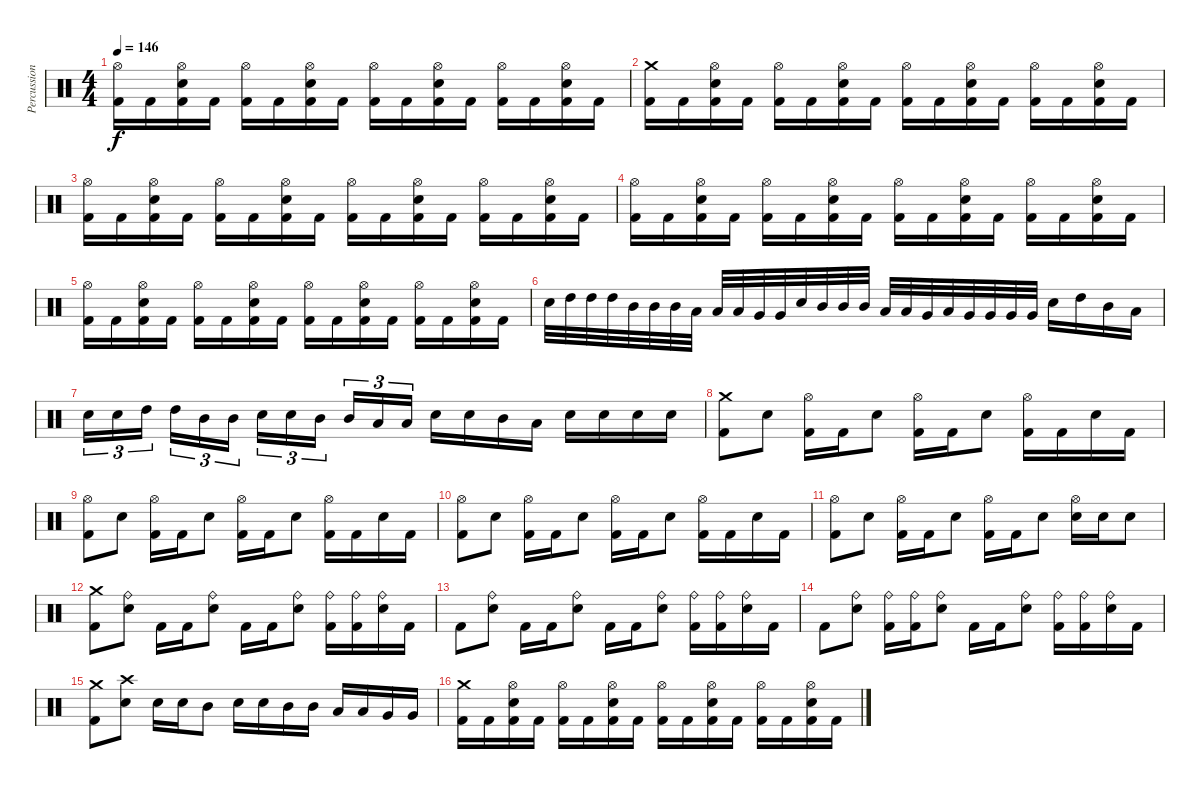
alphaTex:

\track ("Percussion" "Percussion") {instrument percussion}
\staff {score}
\articulation defaults
\ts (4 4)
\tempo 146
\clef neutral
\ks c
("Kick (hit) 2" "Hi-Hat (open)").16{dy f} "Kick (hit) 2".16 ("Kick (hit) 2" "Electric Snare (hit)" "Hi-Hat (open)").16 "Kick (hit) 2".16 ("Kick (hit) 2" "Hi-Hat (open)").16 "Kick (hit) 2".16 ("Kick (hit) 2" "Electric Snare (hit)" "Hi-Hat (open)").16 "Kick (hit) 2".16 ("Kick (hit) 2" "Hi-Hat (open)").16 "Kick (hit) 2".16 ("Kick (hit) 2" "Electric Snare (hit)" "Hi-Hat (open)").16 "Kick (hit) 2".16 ("Kick (hit) 2" "Hi-Hat (open)").16 "Kick (hit) 2".16 ("Kick (hit) 2" "Electric Snare (hit)" "Hi-Hat (open)").16 "Kick (hit) 2".16 |
("Kick (hit) 2" "Crash medium (hit)").16 "Kick (hit) 2".16 ("Kick (hit) 2" "Electric Snare (hit)" "Hi-Hat (open)").16 "Kick (hit) 2".16 ("Kick (hit) 2" "Hi-Hat (open)").16 "Kick (hit) 2".16 ("Kick (hit) 2" "Electric Snare (hit)" "Hi-Hat (open)").16 "Kick (hit) 2".16 ("Kick (hit) 2" "Hi-Hat (open)").16 "Kick (hit) 2".16 ("Kick (hit) 2" "Electric Snare (hit)" "Hi-Hat (open)").16 "Kick (hit) 2".16 ("Kick (hit) 2" "Hi-Hat (open)").16 "Kick (hit) 2".16 ("Kick (hit) 2" "Electric Snare (hit)" "Hi-Hat (open)").16 "Kick (hit) 2".16 |
("Kick (hit) 2" "Hi-Hat (open)").16 "Kick (hit) 2".16 ("Kick (hit) 2" "Electric Snare (hit)" "Hi-Hat (open)").16 "Kick (hit) 2".16 ("Kick (hit) 2" "Hi-Hat (open)").16 "Kick (hit) 2".16 ("Kick (hit) 2" "Electric Snare (hit)" "Hi-Hat (open)").16 "Kick (hit) 2".16 ("Kick (hit) 2" "Hi-Hat (open)").16 "Kick (hit) 2".16 ("Kick (hit) 2" "Electric Snare (hit)" "Hi-Hat (open)").16 "Kick (hit) 2".16 ("Kick (hit) 2" "Hi-Hat (open)").16 "Kick (hit) 2".16 ("Kick (hit) 2" "Electric Snare (hit)" "Hi-Hat (open)").16 "Kick (hit) 2".16 |
("Kick (hit) 2" "Hi-Hat (open)").16 "Kick (hit) 2".16 ("Kick (hit) 2" "Electric Snare (hit)" "Hi-Hat (open)").16 "Kick (hit) 2".16 ("Kick (hit) 2" "Hi-Hat (open)").16 "Kick (hit) 2".16 ("Kick (hit) 2" "Electric Snare (hit)" "Hi-Hat (open)").16 "Kick (hit) 2".16 ("Kick (hit) 2" "Hi-Hat (open)").16 "Kick (hit) 2".16 ("Kick (hit) 2" "Electric Snare (hit)" "Hi-Hat (open)").16 "Kick (hit) 2".16 ("Kick (hit) 2" "Hi-Hat (open)").16 "Kick (hit) 2".16 ("Kick (hit) 2" "Electric Snare (hit)" "Hi-Hat (open)").16 "Kick (hit) 2".16 |
("Kick (hit) 2" "Hi-Hat (open)").16 "Kick (hit) 2".16 ("Kick (hit) 2" "Electric Snare (hit)" "Hi-Hat (open)").16 "Kick (hit) 2".16 ("Kick (hit) 2" "Hi-Hat (open)").16 "Kick (hit) 2".16 ("Kick (hit) 2" "Electric Snare (hit)" "Hi-Hat (open)").16 "Kick (hit) 2".16 ("Kick (hit) 2" "Hi-Hat (open)").16 "Kick (hit) 2".16 ("Kick (hit) 2" "Electric Snare (hit)" "Hi-Hat (open)").16 "Kick (hit) 2".16 ("Kick (hit) 2" "Hi-Hat (open)").16 "Kick (hit) 2".16 ("Kick (hit) 2" "Electric Snare (hit)" "Hi-Hat (open)").16 "Kick (hit) 2".16 |
"Electric Snare (hit)".32 "High Tom (hit)".32 "High Tom (hit)".32 "High Tom (hit)".32 "Mid Tom (hit)".32 "Mid Tom (hit)".32 "Mid Tom (hit)".32 "Low Tom (hit)".32 "Low Tom (hit)".32 "Low Tom (hit)".32 "Very Low Tom (hit)".32 "Very Low Tom (hit)".32 "Electric Snare (hit)".32 "Mid Tom (hit)".32 "Mid Tom (hit)".32 "Mid Tom (hit)".32 "Low Tom (hit)".32 "Low Tom (hit)".32 "Very Low Tom (hit)".32 "Low Tom (hit)".32 "Very Low Tom (hit)".32 "Very Low Tom (hit)".32 "Very Low Tom (hit)".32 "Very Low Tom (hit)".32 "Electric Snare (hit)".16 "High Tom (hit)".16 "Mid Tom (hit)".16 "Low Tom (hit)".16 |
"Electric Snare (hit)".16{tu (3 2)} "Electric Snare (hit)".16{tu (3 2)} "High Tom (hit)".16{tu (3 2) beam splitsecondary} "High Tom (hit)".16{tu (3 2)} "Mid Tom (hit)".16{tu (3 2)} "Mid Tom (hit)".16{tu (3 2)} "Electric Snare (hit)".16{tu (3 2)} "Electric Snare (hit)".16{tu (3 2)} "Mid Tom (hit)".16{tu (3 2) beam splitsecondary} "Mid Tom (hit)".16{tu (3 2)} "Low Tom (hit)".16{tu (3 2)} "Low Tom (hit)".16{tu (3 2)} "Electric Snare (hit)".16 "Electric Snare (hit)".16 "Mid Tom (hit)".16 "Low Tom (hit)".16 "Electric Snare (hit)".16 "Electric Snare (hit)".16 "Electric Snare (hit)".16 "Electric Snare (hit)".16 |
("Kick (hit) 2" "Crash medium (hit)").8 "Electric Snare (hit)".8 ("Kick (hit) 2" "Hi-Hat (open)").16 "Kick (hit) 2".16 "Electric Snare (hit)".8 ("Kick (hit) 2" "Hi-Hat (open)").16 "Kick (hit) 2".16 "Electric Snare (hit)".8 ("Kick (hit) 2" "Hi-Hat (open)").16 "Kick (hit) 2".16 "Electric Snare (hit)".16 "Kick (hit) 2".16 |
("Kick (hit) 2" "Hi-Hat (open)").8 "Electric Snare (hit)".8 ("Kick (hit) 2" "Hi-Hat (open)").16 "Kick (hit) 2".16 "Electric Snare (hit)".8 ("Kick (hit) 2" "Hi-Hat (open)").16 "Kick (hit) 2".16 "Electric Snare (hit)".8 ("Kick (hit) 2" "Hi-Hat (open)").16 "Kick (hit) 2".16 "Electric Snare (hit)".16 "Kick (hit) 2".16 |
("Kick (hit) 2" "Hi-Hat (open)").8 "Electric Snare (hit)".8 ("Kick (hit) 2" "Hi-Hat (open)").16 "Kick (hit) 2".16 "Electric Snare (hit)".8 ("Kick (hit) 2" "Hi-Hat (open)").16 "Kick (hit) 2".16 "Electric Snare (hit)".8 ("Kick (hit) 2" "Hi-Hat (open)").16 "Kick (hit) 2".16 "Electric Snare (hit)".16 "Kick (hit) 2".16 |
("Kick (hit) 2" "Hi-Hat (open)").8 "Electric Snare (hit)".8 ("Kick (hit) 2" "Hi-Hat (open)").16 "Kick (hit) 2".16 "Electric Snare (hit)".8 ("Kick (hit) 2" "Hi-Hat (open)").16 "Kick (hit) 2".16 "Electric Snare (hit)".8 ("Electric Snare (hit)" "Hi-Hat (open)").16 "Electric Snare (hit)".16 "Electric Snare (hit)".8 |
("Kick (hit) 2" "Crash medium (hit)").8 ("Electric Snare (hit)" "Ride (bell)").8 "Kick (hit) 2".16 "Kick (hit) 2".16 ("Electric Snare (hit)" "Ride (bell)").8 "Kick (hit) 2".16 "Kick (hit) 2".16 ("Electric Snare (hit)" "Ride (bell)").8 ("Kick (hit) 2" "Ride (bell)").16 ("Kick (hit) 2" "Ride (bell)").16 ("Electric Snare (hit)" "Ride (bell)").16 "Kick (hit) 2".16 |
"Kick (hit) 2".8 ("Electric Snare (hit)" "Ride (bell)").8 "Kick (hit) 2".16 "Kick (hit) 2".16 ("Electric Snare (hit)" "Ride (bell)").8 "Kick (hit) 2".16 "Kick (hit) 2".16 ("Electric Snare (hit)" "Ride (bell)").8 ("Kick (hit) 2" "Ride (bell)").16 ("Kick (hit) 2" "Ride (bell)").16 ("Electric Snare (hit)" "Ride (bell)").16 "Kick (hit) 2".16 |
"Kick (hit) 2".8 ("Electric Snare (hit)" "Ride (bell)").8 ("Kick (hit) 2" "Ride (bell)").16 ("Kick (hit) 2" "Ride (bell)").16 ("Electric Snare (hit)" "Ride (bell)").8 "Kick (hit) 2".16 "Kick (hit) 2".16 ("Electric Snare (hit)" "Ride (bell)").8 ("Kick (hit) 2" "Ride (bell)").16 ("Kick (hit) 2" "Ride (bell)").16 ("Electric Snare (hit)" "Ride (bell)").16 "Kick (hit) 2".16 |
("Kick (hit) 2" "Crash medium (hit)").8 ("Electric Snare (hit)" "Crash high (hit)").8 "Electric Snare (hit)".16 "Electric Snare (hit)".16 "Mid Tom (hit)".8 "Electric Snare (hit)".16 "Electric Snare (hit)".16 "Mid Tom (hit)".16 "Mid Tom (hit)".16 "Low Tom (hit)".16 "Low Tom (hit)".16 "Very Low Tom (hit)".16 "Very Low Tom (hit)".16 |
("Kick (hit) 2" "Crash medium (hit)").16 "Kick (hit) 2".16 ("Kick (hit) 2" "Electric Snare (hit)" "Hi-Hat (open)").16 "Kick (hit) 2".16 ("Kick (hit) 2" "Hi-Hat (open)").16 "Kick (hit) 2".16 ("Kick (hit) 2" "Electric Snare (hit)" "Hi-Hat (open)").16 "Kick (hit) 2".16 ("Kick (hit) 2" "Hi-Hat (open)").16 "Kick (hit) 2".16 ("Kick (hit) 2" "Electric Snare (hit)" "Hi-Hat (open)").16 "Kick (hit) 2".16 ("Kick (hit) 2" "Hi-Hat (open)").16 "Kick (hit) 2".16 ("Kick (hit) 2" "Electric Snare (hit)" "Hi-Hat (open)").16 "Kick (hit) 2".16
